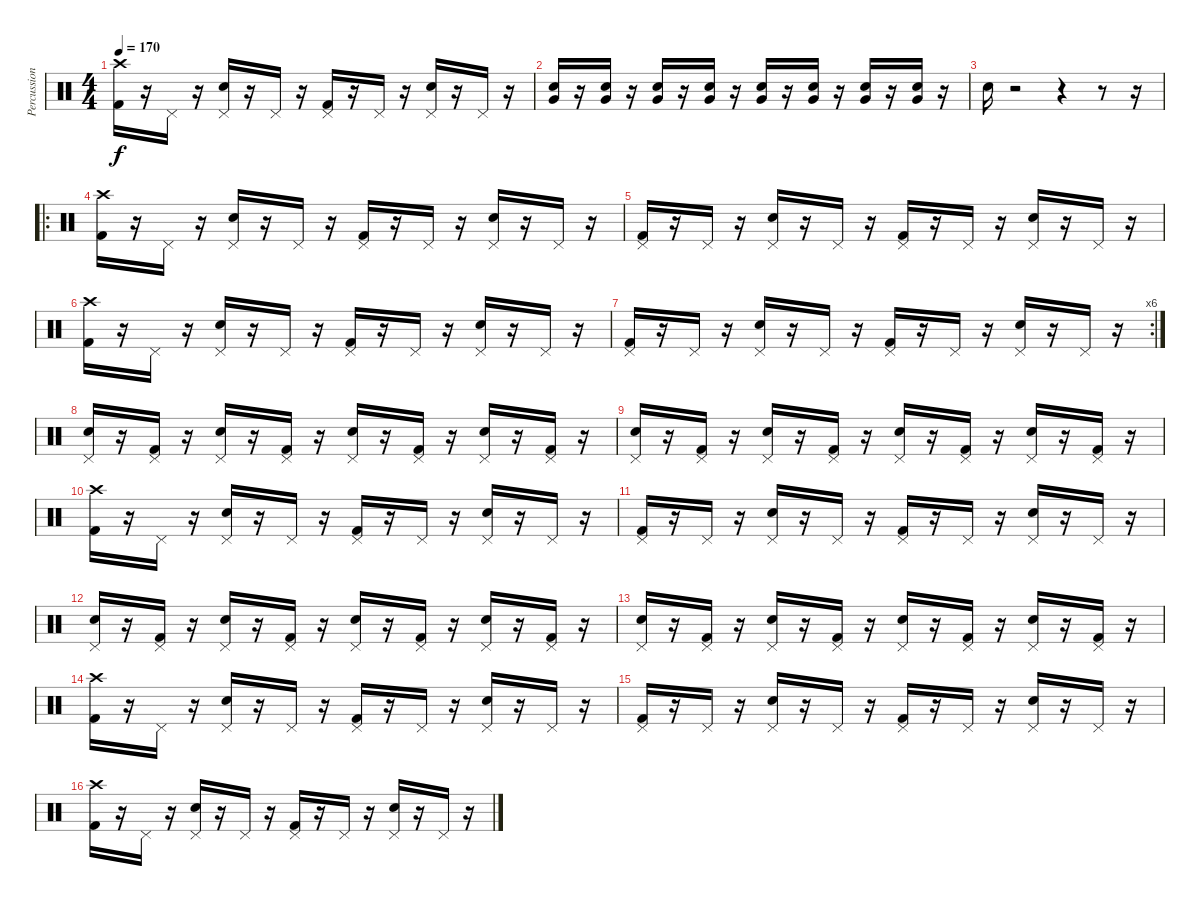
\track ("Percussion" "Percussion") {instrument percussion}
\staff {score}
\articulation defaults
\ts (4 4)
\tempo 170
\clef neutral
\ks c
("Crash high (hit)" "Kick (hit) 2").16{dy f} r.16 "Pedal Hi-Hat (hit)".16 r.16 ("Pedal Hi-Hat (hit)" "Snare (hit) 2").16 r.16 "Pedal Hi-Hat (hit)".16 r.16 ("Pedal Hi-Hat (hit)" "Kick (hit) 2").16 r.16 "Pedal Hi-Hat (hit)".16 r.16 ("Pedal Hi-Hat (hit)" "Snare (hit) 2").16 r.16 "Pedal Hi-Hat (hit)".16 r.16 |
("Very Low Tom (hit)" "Snare (hit) 2").16 r.16 ("Very Low Tom (hit)" "Snare (hit) 2").16 r.16 ("Very Low Tom (hit)" "Snare (hit) 2").16 r.16 ("Very Low Tom (hit)" "Snare (hit) 2").16 r.16 ("Very Low Tom (hit)" "Snare (hit) 2").16 r.16 ("Very Low Tom (hit)" "Snare (hit) 2").16 r.16 ("Very Low Tom (hit)" "Snare (hit) 2").16 r.16 ("Very Low Tom (hit)" "Snare (hit) 2").16 r.16 |
"Snare (hit) 2".16 r.2 r.4 r.8 r.16 |
\ro
("Crash high (hit)" "Kick (hit) 2").16 r.16 "Pedal Hi-Hat (hit)".16 r.16 ("Pedal Hi-Hat (hit)" "Snare (hit) 2").16 r.16 "Pedal Hi-Hat (hit)".16 r.16 ("Pedal Hi-Hat (hit)" "Kick (hit) 2").16 r.16 "Pedal Hi-Hat (hit)".16 r.16 ("Pedal Hi-Hat (hit)" "Snare (hit) 2").16 r.16 "Pedal Hi-Hat (hit)".16 r.16 |
("Pedal Hi-Hat (hit)" "Kick (hit) 2").16 r.16 "Pedal Hi-Hat (hit)".16 r.16 ("Pedal Hi-Hat (hit)" "Snare (hit) 2").16 r.16 "Pedal Hi-Hat (hit)".16 r.16 ("Pedal Hi-Hat (hit)" "Kick (hit) 2").16 r.16 "Pedal Hi-Hat (hit)".16 r.16 ("Pedal Hi-Hat (hit)" "Snare (hit) 2").16 r.16 "Pedal Hi-Hat (hit)".16 r.16 |
("Crash high (hit)" "Kick (hit) 2").16 r.16 "Pedal Hi-Hat (hit)".16 r.16 ("Pedal Hi-Hat (hit)" "Snare (hit) 2").16 r.16 "Pedal Hi-Hat (hit)".16 r.16 ("Pedal Hi-Hat (hit)" "Kick (hit) 2").16 r.16 "Pedal Hi-Hat (hit)".16 r.16 ("Pedal Hi-Hat (hit)" "Snare (hit) 2").16 r.16 "Pedal Hi-Hat (hit)".16 r.16 |
\rc 6
("Pedal Hi-Hat (hit)" "Kick (hit) 2").16 r.16 "Pedal Hi-Hat (hit)".16 r.16 ("Pedal Hi-Hat (hit)" "Snare (hit) 2").16 r.16 "Pedal Hi-Hat (hit)".16 r.16 ("Pedal Hi-Hat (hit)" "Kick (hit) 2").16 r.16 "Pedal Hi-Hat (hit)".16 r.16 ("Pedal Hi-Hat (hit)" "Snare (hit) 2").16 r.16 "Pedal Hi-Hat (hit)".16 r.16 |
("Pedal Hi-Hat (hit)" "Snare (hit) 2").16 r.16 ("Pedal Hi-Hat (hit)" "Kick (hit) 2").16 r.16 ("Pedal Hi-Hat (hit)" "Snare (hit) 2").16 r.16 ("Pedal Hi-Hat (hit)" "Kick (hit) 2").16 r.16 ("Pedal Hi-Hat (hit)" "Snare (hit) 2").16 r.16 ("Pedal Hi-Hat (hit)" "Kick (hit) 2").16 r.16 ("Pedal Hi-Hat (hit)" "Snare (hit) 2").16 r.16 ("Pedal Hi-Hat (hit)" "Kick (hit) 2").16 r.16 |
("Pedal Hi-Hat (hit)" "Snare (hit) 2").16 r.16 ("Pedal Hi-Hat (hit)" "Kick (hit) 2").16 r.16 ("Pedal Hi-Hat (hit)" "Snare (hit) 2").16 r.16 ("Pedal Hi-Hat (hit)" "Kick (hit) 2").16 r.16 ("Pedal Hi-Hat (hit)" "Snare (hit) 2").16 r.16 ("Pedal Hi-Hat (hit)" "Kick (hit) 2").16 r.16 ("Pedal Hi-Hat (hit)" "Snare (hit) 2").16 r.16 ("Pedal Hi-Hat (hit)" "Kick (hit) 2").16 r.16 |
("Crash high (hit)" "Kick (hit) 2").16 r.16 "Pedal Hi-Hat (hit)".16 r.16 ("Pedal Hi-Hat (hit)" "Snare (hit) 2").16 r.16 "Pedal Hi-Hat (hit)".16 r.16 ("Pedal Hi-Hat (hit)" "Kick (hit) 2").16 r.16 "Pedal Hi-Hat (hit)".16 r.16 ("Pedal Hi-Hat (hit)" "Snare (hit) 2").16 r.16 "Pedal Hi-Hat (hit)".16 r.16 |
("Pedal Hi-Hat (hit)" "Kick (hit) 2").16 r.16 "Pedal Hi-Hat (hit)".16 r.16 ("Pedal Hi-Hat (hit)" "Snare (hit) 2").16 r.16 "Pedal Hi-Hat (hit)".16 r.16 ("Pedal Hi-Hat (hit)" "Kick (hit) 2").16 r.16 "Pedal Hi-Hat (hit)".16 r.16 ("Pedal Hi-Hat (hit)" "Snare (hit) 2").16 r.16 "Pedal Hi-Hat (hit)".16 r.16 |
("Pedal Hi-Hat (hit)" "Snare (hit) 2").16 r.16 ("Pedal Hi-Hat (hit)" "Kick (hit) 2").16 r.16 ("Pedal Hi-Hat (hit)" "Snare (hit) 2").16 r.16 ("Pedal Hi-Hat (hit)" "Kick (hit) 2").16 r.16 ("Pedal Hi-Hat (hit)" "Snare (hit) 2").16 r.16 ("Pedal Hi-Hat (hit)" "Kick (hit) 2").16 r.16 ("Pedal Hi-Hat (hit)" "Snare (hit) 2").16 r.16 ("Pedal Hi-Hat (hit)" "Kick (hit) 2").16 r.16 |
("Pedal Hi-Hat (hit)" "Snare (hit) 2").16 r.16 ("Pedal Hi-Hat (hit)" "Kick (hit) 2").16 r.16 ("Pedal Hi-Hat (hit)" "Snare (hit) 2").16 r.16 ("Pedal Hi-Hat (hit)" "Kick (hit) 2").16 r.16 ("Pedal Hi-Hat (hit)" "Snare (hit) 2").16 r.16 ("Pedal Hi-Hat (hit)" "Kick (hit) 2").16 r.16 ("Pedal Hi-Hat (hit)" "Snare (hit) 2").16 r.16 ("Pedal Hi-Hat (hit)" "Kick (hit) 2").16 r.16 |
("Crash high (hit)" "Kick (hit) 2").16 r.16 "Pedal Hi-Hat (hit)".16 r.16 ("Pedal Hi-Hat (hit)" "Snare (hit) 2").16 r.16 "Pedal Hi-Hat (hit)".16 r.16 ("Pedal Hi-Hat (hit)" "Kick (hit) 2").16 r.16 "Pedal Hi-Hat (hit)".16 r.16 ("Pedal Hi-Hat (hit)" "Snare (hit) 2").16 r.16 "Pedal Hi-Hat (hit)".16 r.16 |
("Pedal Hi-Hat (hit)" "Kick (hit) 2").16 r.16 "Pedal Hi-Hat (hit)".16 r.16 ("Pedal Hi-Hat (hit)" "Snare (hit) 2").16 r.16 "Pedal Hi-Hat (hit)".16 r.16 ("Pedal Hi-Hat (hit)" "Kick (hit) 2").16 r.16 "Pedal Hi-Hat (hit)".16 r.16 ("Pedal Hi-Hat (hit)" "Snare (hit) 2").16 r.16 "Pedal Hi-Hat (hit)".16 r.16 |
("Crash high (hit)" "Kick (hit) 2").16 r.16 "Pedal Hi-Hat (hit)".16 r.16 ("Pedal Hi-Hat (hit)" "Snare (hit) 2").16 r.16 "Pedal Hi-Hat (hit)".16 r.16 ("Pedal Hi-Hat (hit)" "Kick (hit) 2").16 r.16 "Pedal Hi-Hat (hit)".16 r.16 ("Pedal Hi-Hat (hit)" "Snare (hit) 2").16 r.16 "Pedal Hi-Hat (hit)".16 r.16
